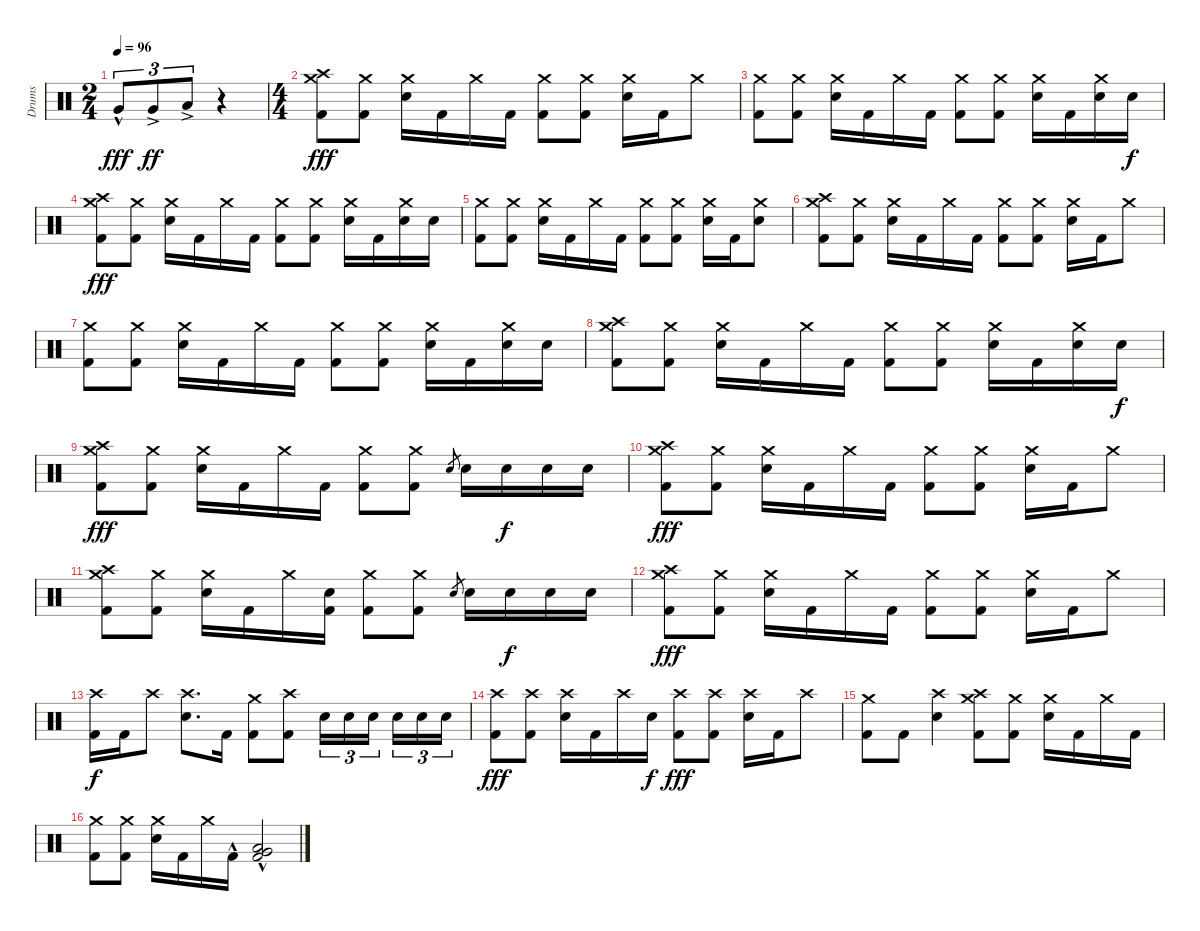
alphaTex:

\track ("Drums" "Drums") {instrument percussion}
\staff {score}
\articulation defaults
\ts (2 4)
\tempo 96
\clef neutral
\ks c "Very Low Tom (hit)"{hac}.8{tu (3 2) dy fff} "Very Low Tom (hit)"{ac}.8{tu (3 2) dy ff} "Low Tom (hit)"{ac}.8{tu (3 2)}
r.4 |
\ts (4 4)
("Crash medium (hit)" "Crash high (hit)" "Kick (hit) 2").8{dy fff} ("Crash medium (hit)" "Kick (hit) 2").8 ("Crash medium (hit)" "Electric Snare (hit)").16 "Kick (hit) 2".16 "Crash medium (hit)".16 "Kick (hit) 2".16 ("Crash medium (hit)" "Kick (hit) 2").8 ("Crash medium (hit)" "Kick (hit) 2").8 ("Crash medium (hit)" "Electric Snare (hit)").16 "Kick (hit) 2".16 "Crash medium (hit)".8 |
("Crash medium (hit)" "Kick (hit) 2").8 ("Crash medium (hit)" "Kick (hit) 2").8 ("Crash medium (hit)" "Electric Snare (hit)").16 "Kick (hit) 2".16 "Crash medium (hit)".16 "Kick (hit) 2".16 ("Crash medium (hit)" "Kick (hit) 2").8 ("Crash medium (hit)" "Kick (hit) 2").8 ("Crash medium (hit)" "Electric Snare (hit)").16 "Kick (hit) 2".16 ("Crash medium (hit)" "Electric Snare (hit)").16 "Electric Snare (hit)".16{dy f} |
("Crash medium (hit)" "Crash high (hit)" "Kick (hit) 2").8{dy fff} ("Crash medium (hit)" "Kick (hit) 2").8 ("Crash medium (hit)" "Electric Snare (hit)").16 "Kick (hit) 2".16 "Crash medium (hit)".16 "Kick (hit) 2".16 ("Crash medium (hit)" "Kick (hit) 2").8 ("Crash medium (hit)" "Kick (hit) 2").8 ("Crash medium (hit)" "Electric Snare (hit)").16 "Kick (hit) 2".16 ("Crash medium (hit)" "Electric Snare (hit)").16 "Electric Snare (hit)".16 |
("Crash medium (hit)" "Kick (hit) 2").8 ("Crash medium (hit)" "Kick (hit) 2").8 ("Crash medium (hit)" "Electric Snare (hit)").16 "Kick (hit) 2".16 "Crash medium (hit)".16 "Kick (hit) 2".16 ("Crash medium (hit)" "Kick (hit) 2").8 ("Crash medium (hit)" "Kick (hit) 2").8 ("Crash medium (hit)" "Electric Snare (hit)").16 "Kick (hit) 2".16 ("Crash medium (hit)" "Electric Snare (hit)").8 |
("Crash medium (hit)" "Crash high (hit)" "Kick (hit) 2").8 ("Crash medium (hit)" "Kick (hit) 2").8 ("Crash medium (hit)" "Electric Snare (hit)").16 "Kick (hit) 2".16 "Crash medium (hit)".16 "Kick (hit) 2".16 ("Crash medium (hit)" "Kick (hit) 2").8 ("Crash medium (hit)" "Kick (hit) 2").8 ("Crash medium (hit)" "Electric Snare (hit)").16 "Kick (hit) 2".16 "Crash medium (hit)".8 |
("Crash medium (hit)" "Kick (hit) 2").8 ("Crash medium (hit)" "Kick (hit) 2").8 ("Crash medium (hit)" "Electric Snare (hit)").16 "Kick (hit) 2".16 "Crash medium (hit)".16 "Kick (hit) 2".16 ("Crash medium (hit)" "Kick (hit) 2").8 ("Crash medium (hit)" "Kick (hit) 2").8 ("Crash medium (hit)" "Electric Snare (hit)").16 "Kick (hit) 2".16 ("Crash medium (hit)" "Electric Snare (hit)").16 "Electric Snare (hit)".16 |
("Crash medium (hit)" "Crash high (hit)" "Kick (hit) 2").8 ("Crash medium (hit)" "Kick (hit) 2").8 ("Crash medium (hit)" "Electric Snare (hit)").16 "Kick (hit) 2".16 "Crash medium (hit)".16 "Kick (hit) 2".16 ("Crash medium (hit)" "Kick (hit) 2").8 ("Crash medium (hit)" "Kick (hit) 2").8 ("Crash medium (hit)" "Electric Snare (hit)").16 "Kick (hit) 2".16 ("Crash medium (hit)" "Electric Snare (hit)").16 "Electric Snare (hit)".16{dy f} |
("Crash medium (hit)" "Crash high (hit)" "Kick (hit) 2").8{dy fff} ("Crash medium (hit)" "Kick (hit) 2").8 ("Crash medium (hit)" "Electric Snare (hit)").16 "Kick (hit) 2".16 "Crash medium (hit)".16 "Kick (hit) 2".16 ("Crash medium (hit)" "Kick (hit) 2").8 ("Crash medium (hit)" "Kick (hit) 2").8 "Electric Snare (hit)".8{gr} "Electric Snare (hit)".16 "Electric Snare (hit)".16{dy f} "Electric Snare (hit)".16 "Electric Snare (hit)".16 |
("Crash medium (hit)" "Crash high (hit)" "Kick (hit) 2").8{dy fff} ("Crash medium (hit)" "Kick (hit) 2").8 ("Crash medium (hit)" "Electric Snare (hit)").16 "Kick (hit) 2".16 "Crash medium (hit)".16 "Kick (hit) 2".16 ("Crash medium (hit)" "Kick (hit) 2").8 ("Crash medium (hit)" "Kick (hit) 2").8 ("Crash medium (hit)" "Electric Snare (hit)").16 "Kick (hit) 2".16 "Crash medium (hit)".8 |
("Crash medium (hit)" "Crash high (hit)" "Kick (hit) 2").8 ("Crash medium (hit)" "Kick (hit) 2").8 ("Crash medium (hit)" "Electric Snare (hit)").16 "Kick (hit) 2".16 "Crash medium (hit)".16 ("Electric Snare (hit)" "Kick (hit) 2").16 ("Crash medium (hit)" "Kick (hit) 2").8 ("Crash medium (hit)" "Kick (hit) 2").8 "Electric Snare (hit)".8{gr} "Electric Snare (hit)".16 "Electric Snare (hit)".16{dy f} "Electric Snare (hit)".16 "Electric Snare (hit)".16 |
("Crash medium (hit)" "Crash high (hit)" "Kick (hit) 2").8{dy fff} ("Crash medium (hit)" "Kick (hit) 2").8 ("Crash medium (hit)" "Electric Snare (hit)").16 "Kick (hit) 2".16 "Crash medium (hit)".16 "Kick (hit) 2".16 ("Crash medium (hit)" "Kick (hit) 2").8 ("Crash medium (hit)" "Kick (hit) 2").8 ("Crash medium (hit)" "Electric Snare (hit)").16 "Kick (hit) 2".16 "Crash medium (hit)".8 |
("Crash high (hit)" "Kick (hit) 2").16{dy f} "Kick (hit) 2".16 "Crash high (hit)".8 ("Crash high (hit)" "Electric Snare (hit)").8{d} "Kick (hit) 2".16 ("Crash medium (hit)" "Kick (hit) 2").8 ("Crash high (hit)" "Kick (hit) 2").8 "Electric Snare (hit)".16{tu (3 2)} "Electric Snare (hit)".16{tu (3 2)} "Electric Snare (hit)".16{tu (3 2) beam splitsecondary} "Electric Snare (hit)".16{tu (3 2)} "Electric Snare (hit)".16{tu (3 2)} "Electric Snare (hit)".16{tu (3 2)} |
("Crash high (hit)" "Kick (hit) 2").8{dy fff} ("Crash high (hit)" "Kick (hit) 2").8 ("Crash high (hit)" "Electric Snare (hit)").16 "Kick (hit) 2".16 "Crash high (hit)".16 "Electric Snare (hit)".16{dy f} ("Crash high (hit)" "Kick (hit) 2").8{dy fff} ("Crash high (hit)" "Kick (hit) 2").8 ("Crash high (hit)" "Electric Snare (hit)").16 "Kick (hit) 2".16 "Crash high (hit)".8 |
("Crash medium (hit)" "Kick (hit) 2").8 "Kick (hit) 2".8 ("Crash high (hit)" "Snare (hit) 2").4 ("Crash medium (hit)" "Crash high (hit)" "Kick (hit) 2").8 ("Crash medium (hit)" "Kick (hit) 2").8 ("Crash medium (hit)" "Electric Snare (hit)").16 "Kick (hit) 2".16 "Crash medium (hit)".16 "Kick (hit) 2".16 |
("Crash medium (hit)" "Kick (hit) 2").8 ("Crash medium (hit)" "Kick (hit) 2").8 ("Crash medium (hit)" "Electric Snare (hit)").16 "Kick (hit) 2".16 "Crash medium (hit)".16 "Kick (hit) 2"{hac}.16 ("Kick (hit) 2"{hac} "Very Low Tom (hit)"{hac} "Low Tom (hit)"{hac}).2
